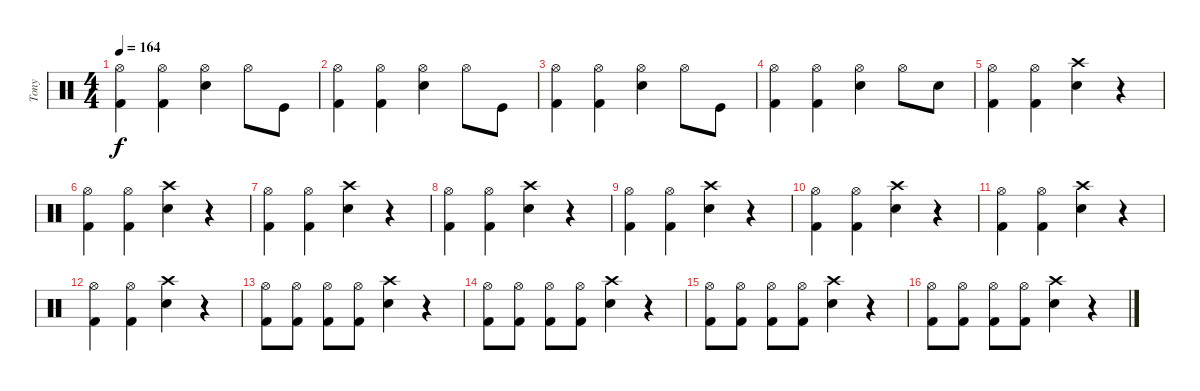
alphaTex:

\track ("Tony" "Tony") {instrument percussion}
\staff {score}
\articulation defaults
\ts (4 4)
\tempo 164
\clef neutral
\ks c
("Hi-Hat (open)" "Kick (hit) 2").4{dy f} ("Hi-Hat (open)" "Kick (hit) 2").4 ("Hi-Hat (open)" "Electric Snare (hit)").4 "Hi-Hat (open)".8 "Kick (hit)".8 |
("Hi-Hat (open)" "Kick (hit) 2").4 ("Hi-Hat (open)" "Kick (hit) 2").4 ("Hi-Hat (open)" "Electric Snare (hit)").4 "Hi-Hat (open)".8 "Kick (hit)".8 |
("Hi-Hat (open)" "Kick (hit) 2").4 ("Hi-Hat (open)" "Kick (hit) 2").4 ("Hi-Hat (open)" "Electric Snare (hit)").4 "Hi-Hat (open)".8 "Kick (hit)".8 |
("Hi-Hat (open)" "Kick (hit) 2").4 ("Hi-Hat (open)" "Kick (hit) 2").4 ("Hi-Hat (open)" "Electric Snare (hit)").4 "Hi-Hat (open)".8 "Snare (hit) 2".8 |
("Hi-Hat (open)" "Kick (hit) 2").4 ("Hi-Hat (open)" "Kick (hit) 2").4 ("Crash high (hit)" "Electric Snare (hit)").4 r.4 |
("Hi-Hat (open)" "Kick (hit) 2").4 ("Hi-Hat (open)" "Kick (hit) 2").4 ("Crash high (hit)" "Electric Snare (hit)").4 r.4 |
("Hi-Hat (open)" "Kick (hit) 2").4 ("Hi-Hat (open)" "Kick (hit) 2").4 ("Crash high (hit)" "Electric Snare (hit)").4 r.4 |
("Hi-Hat (open)" "Kick (hit) 2").4 ("Hi-Hat (open)" "Kick (hit) 2").4 ("Crash high (hit)" "Electric Snare (hit)").4 r.4 |
("Hi-Hat (open)" "Kick (hit) 2").4 ("Hi-Hat (open)" "Kick (hit) 2").4 ("Crash high (hit)" "Electric Snare (hit)").4 r.4 |
("Hi-Hat (open)" "Kick (hit) 2").4 ("Hi-Hat (open)" "Kick (hit) 2").4 ("Crash high (hit)" "Electric Snare (hit)").4 r.4 |
("Hi-Hat (open)" "Kick (hit) 2").4 ("Hi-Hat (open)" "Kick (hit) 2").4 ("Crash high (hit)" "Electric Snare (hit)").4 r.4 |
("Hi-Hat (open)" "Kick (hit) 2").4 ("Hi-Hat (open)" "Kick (hit) 2").4 ("Crash high (hit)" "Electric Snare (hit)").4 r.4 |
("Hi-Hat (open)" "Kick (hit) 2").8 ("Hi-Hat (open)" "Kick (hit) 2").8 ("Hi-Hat (open)" "Kick (hit) 2").8 ("Hi-Hat (open)" "Kick (hit) 2").8 ("Crash high (hit)" "Electric Snare (hit)").4 r.4 |
("Hi-Hat (open)" "Kick (hit) 2").8 ("Hi-Hat (open)" "Kick (hit) 2").8 ("Hi-Hat (open)" "Kick (hit) 2").8 ("Hi-Hat (open)" "Kick (hit) 2").8 ("Crash high (hit)" "Electric Snare (hit)").4 r.4 |
("Hi-Hat (open)" "Kick (hit) 2").8 ("Hi-Hat (open)" "Kick (hit) 2").8 ("Hi-Hat (open)" "Kick (hit) 2").8 ("Hi-Hat (open)" "Kick (hit) 2").8 ("Crash high (hit)" "Electric Snare (hit)").4 r.4 |
("Hi-Hat (open)" "Kick (hit) 2").8 ("Hi-Hat (open)" "Kick (hit) 2").8 ("Hi-Hat (open)" "Kick (hit) 2").8 ("Hi-Hat (open)" "Kick (hit) 2").8 ("Crash high (hit)" "Electric Snare (hit)").4 r.4
